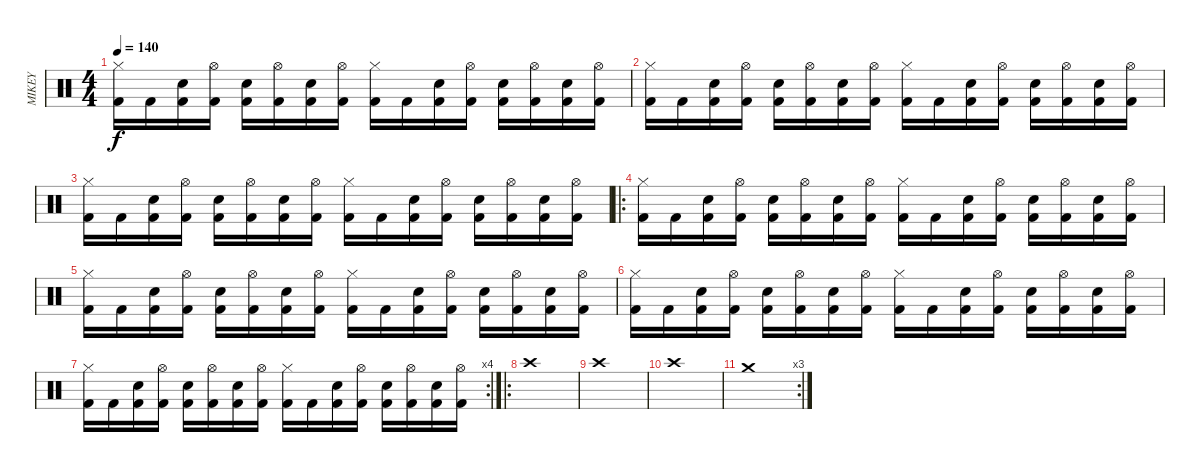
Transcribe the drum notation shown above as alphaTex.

\track ("MIKEY" "MIKEY") {instrument percussion}
\staff {score}
\articulation defaults
\ts (4 4)
\tempo 140
\clef neutral
\ks c
("Hi-Hat (closed)" "Kick (hit) 2").16{dy f} "Kick (hit) 2".16 ("Electric Snare (hit)" "Kick (hit) 2").16 ("Hi-Hat (open)" "Kick (hit) 2").16 ("Electric Snare (hit)" "Kick (hit) 2").16 ("Hi-Hat (open)" "Kick (hit) 2").16 ("Electric Snare (hit)" "Kick (hit) 2").16 ("Hi-Hat (open)" "Kick (hit) 2").16 ("Hi-Hat (closed)" "Kick (hit) 2").16 "Kick (hit) 2".16 ("Electric Snare (hit)" "Kick (hit) 2").16 ("Hi-Hat (open)" "Kick (hit) 2").16 ("Electric Snare (hit)" "Kick (hit) 2").16 ("Hi-Hat (open)" "Kick (hit) 2").16 ("Electric Snare (hit)" "Kick (hit) 2").16 ("Hi-Hat (open)" "Kick (hit) 2").16 |
("Hi-Hat (closed)" "Kick (hit) 2").16 "Kick (hit) 2".16 ("Electric Snare (hit)" "Kick (hit) 2").16 ("Hi-Hat (open)" "Kick (hit) 2").16 ("Electric Snare (hit)" "Kick (hit) 2").16 ("Hi-Hat (open)" "Kick (hit) 2").16 ("Electric Snare (hit)" "Kick (hit) 2").16 ("Hi-Hat (open)" "Kick (hit) 2").16 ("Hi-Hat (closed)" "Kick (hit) 2").16 "Kick (hit) 2".16 ("Electric Snare (hit)" "Kick (hit) 2").16 ("Hi-Hat (open)" "Kick (hit) 2").16 ("Electric Snare (hit)" "Kick (hit) 2").16 ("Hi-Hat (open)" "Kick (hit) 2").16 ("Electric Snare (hit)" "Kick (hit) 2").16 ("Hi-Hat (open)" "Kick (hit) 2").16 |
("Hi-Hat (closed)" "Kick (hit) 2").16 "Kick (hit) 2".16 ("Electric Snare (hit)" "Kick (hit) 2").16 ("Hi-Hat (open)" "Kick (hit) 2").16 ("Electric Snare (hit)" "Kick (hit) 2").16 ("Hi-Hat (open)" "Kick (hit) 2").16 ("Electric Snare (hit)" "Kick (hit) 2").16 ("Hi-Hat (open)" "Kick (hit) 2").16 ("Hi-Hat (closed)" "Kick (hit) 2").16 "Kick (hit) 2".16 ("Electric Snare (hit)" "Kick (hit) 2").16 ("Hi-Hat (open)" "Kick (hit) 2").16 ("Electric Snare (hit)" "Kick (hit) 2").16 ("Hi-Hat (open)" "Kick (hit) 2").16 ("Electric Snare (hit)" "Kick (hit) 2").16 ("Hi-Hat (open)" "Kick (hit) 2").16 |
\ro
("Hi-Hat (closed)" "Kick (hit) 2").16 "Kick (hit) 2".16 ("Electric Snare (hit)" "Kick (hit) 2").16 ("Hi-Hat (open)" "Kick (hit) 2").16 ("Electric Snare (hit)" "Kick (hit) 2").16 ("Hi-Hat (open)" "Kick (hit) 2").16 ("Electric Snare (hit)" "Kick (hit) 2").16 ("Hi-Hat (open)" "Kick (hit) 2").16 ("Hi-Hat (closed)" "Kick (hit) 2").16 "Kick (hit) 2".16 ("Electric Snare (hit)" "Kick (hit) 2").16 ("Hi-Hat (open)" "Kick (hit) 2").16 ("Electric Snare (hit)" "Kick (hit) 2").16 ("Hi-Hat (open)" "Kick (hit) 2").16 ("Electric Snare (hit)" "Kick (hit) 2").16 ("Hi-Hat (open)" "Kick (hit) 2").16 |
("Hi-Hat (closed)" "Kick (hit) 2").16 "Kick (hit) 2".16 ("Electric Snare (hit)" "Kick (hit) 2").16 ("Hi-Hat (open)" "Kick (hit) 2").16 ("Electric Snare (hit)" "Kick (hit) 2").16 ("Hi-Hat (open)" "Kick (hit) 2").16 ("Electric Snare (hit)" "Kick (hit) 2").16 ("Hi-Hat (open)" "Kick (hit) 2").16 ("Hi-Hat (closed)" "Kick (hit) 2").16 "Kick (hit) 2".16 ("Electric Snare (hit)" "Kick (hit) 2").16 ("Hi-Hat (open)" "Kick (hit) 2").16 ("Electric Snare (hit)" "Kick (hit) 2").16 ("Hi-Hat (open)" "Kick (hit) 2").16 ("Electric Snare (hit)" "Kick (hit) 2").16 ("Hi-Hat (open)" "Kick (hit) 2").16 |
("Hi-Hat (closed)" "Kick (hit) 2").16 "Kick (hit) 2".16 ("Electric Snare (hit)" "Kick (hit) 2").16 ("Hi-Hat (open)" "Kick (hit) 2").16 ("Electric Snare (hit)" "Kick (hit) 2").16 ("Hi-Hat (open)" "Kick (hit) 2").16 ("Electric Snare (hit)" "Kick (hit) 2").16 ("Hi-Hat (open)" "Kick (hit) 2").16 ("Hi-Hat (closed)" "Kick (hit) 2").16 "Kick (hit) 2".16 ("Electric Snare (hit)" "Kick (hit) 2").16 ("Hi-Hat (open)" "Kick (hit) 2").16 ("Electric Snare (hit)" "Kick (hit) 2").16 ("Hi-Hat (open)" "Kick (hit) 2").16 ("Electric Snare (hit)" "Kick (hit) 2").16 ("Hi-Hat (open)" "Kick (hit) 2").16 |
\rc 4
("Hi-Hat (closed)" "Kick (hit) 2").16 "Kick (hit) 2".16 ("Electric Snare (hit)" "Kick (hit) 2").16 ("Hi-Hat (open)" "Kick (hit) 2").16 ("Electric Snare (hit)" "Kick (hit) 2").16 ("Hi-Hat (open)" "Kick (hit) 2").16 ("Electric Snare (hit)" "Kick (hit) 2").16 ("Hi-Hat (open)" "Kick (hit) 2").16 ("Hi-Hat (closed)" "Kick (hit) 2").16 "Kick (hit) 2".16 ("Electric Snare (hit)" "Kick (hit) 2").16 ("Hi-Hat (open)" "Kick (hit) 2").16 ("Electric Snare (hit)" "Kick (hit) 2").16 ("Hi-Hat (open)" "Kick (hit) 2").16 ("Electric Snare (hit)" "Kick (hit) 2").16 ("Hi-Hat (open)" "Kick (hit) 2").16 |
\ro "Crash high (hit)".1
|
"Crash high (hit)".1 |
"Crash high (hit)".1 |
\rc 3 "Crash medium (hit)".1
